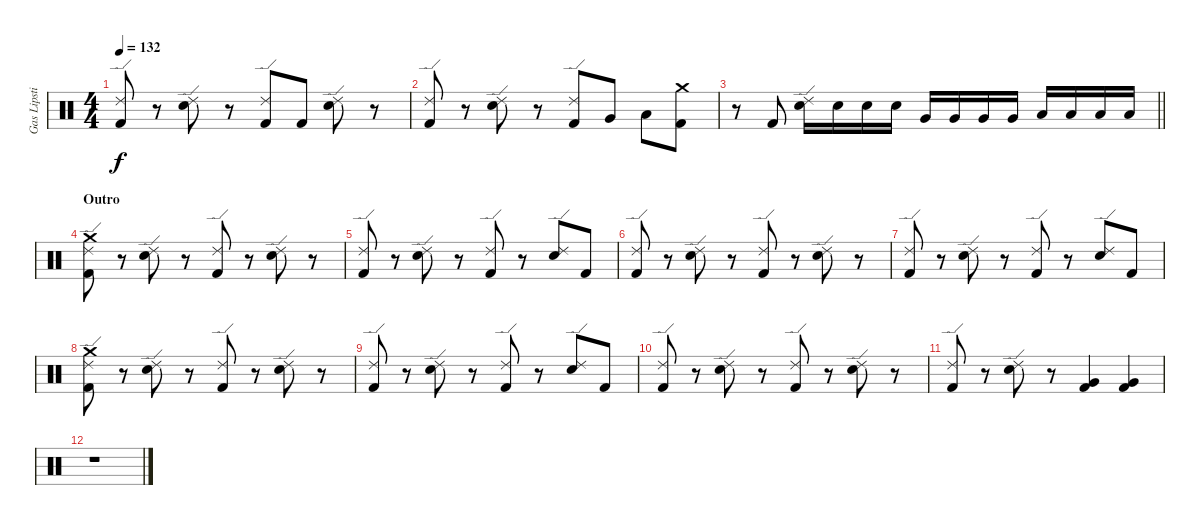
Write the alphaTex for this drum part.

\track ("Gas Lipstick (Drums)" "Gas Lipsti") {instrument percussion}
\staff {score}
\articulation defaults
\ts (4 4)
\tempo 132
\clef neutral
\ks c
("Ride (edge) 2" "Kick (hit) 2").8{dy f} r.8 ("Ride (edge) 2" "Snare (hit) 2").8 r.8 ("Ride (edge) 2" "Kick (hit) 2").8 "Kick (hit) 2".8 ("Ride (edge) 2" "Snare (hit) 2").8 r.8 |
("Ride (edge) 2" "Kick (hit) 2").8 r.8 ("Ride (edge) 2" "Snare (hit) 2").8 r.8 ("Ride (edge) 2" "Kick (hit) 2").8 "Very Low Tom (hit)".8 "Low Floor Tom (hit)".8 ("Crash medium (hit)" "Kick (hit) 2").8 |
\barLineRight lightlight
r.8 "Kick (hit) 2".8 ("Ride (edge) 2" "Snare (hit) 2").16 "Snare (hit) 2".16 "Snare (hit) 2".16 "Snare (hit) 2".16 "Very Low Tom (hit)".16 "Very Low Tom (hit)".16 "Very Low Tom (hit)".16 "Very Low Tom (hit)".16 "Low Floor Tom (hit)".16 "Low Floor Tom (hit)".16 "Low Floor Tom (hit)".16 "Low Floor Tom (hit)".16 |
\section ("" "Outro")
("Crash medium (hit)" "Ride (edge) 2" "Kick (hit) 2").8 r.8 ("Ride (edge) 2" "Snare (hit) 2").8 r.8 ("Ride (edge) 2" "Kick (hit) 2").8 r.8 ("Ride (edge) 2" "Snare (hit) 2").8 r.8 |
("Ride (edge) 2" "Kick (hit) 2").8 r.8 ("Ride (edge) 2" "Snare (hit) 2").8 r.8 ("Ride (edge) 2" "Kick (hit) 2").8 r.8 ("Ride (edge) 2" "Snare (hit) 2").8 "Kick (hit) 2".8 |
("Ride (edge) 2" "Kick (hit) 2").8 r.8 ("Ride (edge) 2" "Snare (hit) 2").8 r.8 ("Ride (edge) 2" "Kick (hit) 2").8 r.8 ("Ride (edge) 2" "Snare (hit) 2").8 r.8 |
("Ride (edge) 2" "Kick (hit) 2").8 r.8 ("Ride (edge) 2" "Snare (hit) 2").8 r.8 ("Ride (edge) 2" "Kick (hit) 2").8 r.8 ("Ride (edge) 2" "Snare (hit) 2").8 "Kick (hit) 2".8 |
("Crash medium (hit)" "Ride (edge) 2" "Kick (hit) 2").8 r.8 ("Ride (edge) 2" "Snare (hit) 2").8 r.8 ("Ride (edge) 2" "Kick (hit) 2").8 r.8 ("Ride (edge) 2" "Snare (hit) 2").8 r.8 |
("Ride (edge) 2" "Kick (hit) 2").8 r.8 ("Ride (edge) 2" "Snare (hit) 2").8 r.8 ("Ride (edge) 2" "Kick (hit) 2").8 r.8 ("Ride (edge) 2" "Snare (hit) 2").8 "Kick (hit) 2".8 |
("Ride (edge) 2" "Kick (hit) 2").8 r.8 ("Ride (edge) 2" "Snare (hit) 2").8 r.8 ("Ride (edge) 2" "Kick (hit) 2").8 r.8 ("Ride (edge) 2" "Snare (hit) 2").8 r.8 |
("Ride (edge) 2" "Kick (hit) 2").8 r.8 ("Ride (edge) 2" "Snare (hit) 2").8 r.8 ("Very Low Tom (hit)" "Kick (hit) 2").4 ("Very Low Tom (hit)" "Kick (hit) 2").4 |
r.1
